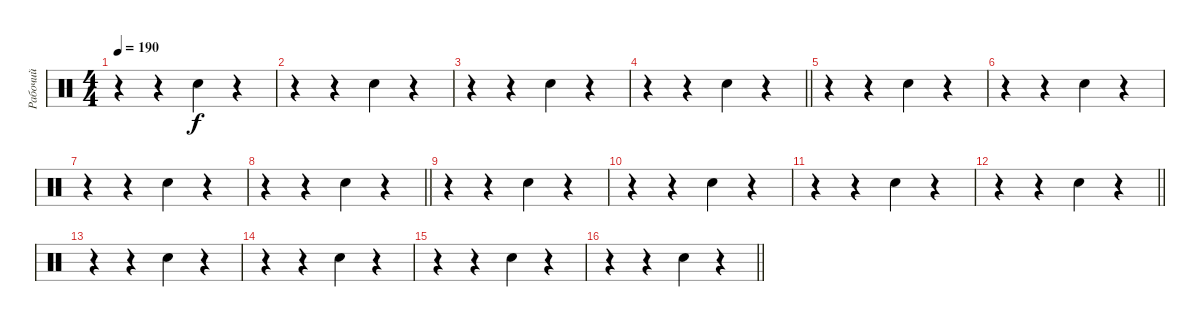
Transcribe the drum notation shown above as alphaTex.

\track ("Рабочий" "Рабочий") {instrument percussion}
\staff {score}
\articulation defaults
\ts (4 4)
\tempo 190
\clef neutral
\ks c
r.4{dy f} r.4 "Snare (hit) 2".4 r.4 |
r.4 r.4 "Snare (hit) 2".4 r.4 |
r.4 r.4 "Snare (hit) 2".4 r.4 |
\barLineRight lightlight
r.4 r.4 "Snare (hit) 2".4 r.4 |
r.4 r.4 "Snare (hit) 2".4 r.4 |
r.4 r.4 "Snare (hit) 2".4 r.4 |
r.4 r.4 "Snare (hit) 2".4 r.4 |
\barLineRight lightlight
r.4 r.4 "Snare (hit) 2".4 r.4 |
r.4 r.4 "Snare (hit) 2".4 r.4 |
r.4 r.4 "Snare (hit) 2".4 r.4 |
r.4 r.4 "Snare (hit) 2".4 r.4 |
\barLineRight lightlight
r.4 r.4 "Snare (hit) 2".4 r.4 |
r.4 r.4 "Snare (hit) 2".4 r.4 |
r.4 r.4 "Snare (hit) 2".4 r.4 |
r.4 r.4 "Snare (hit) 2".4 r.4 |
\barLineRight lightlight
r.4 r.4 "Snare (hit) 2".4 r.4
